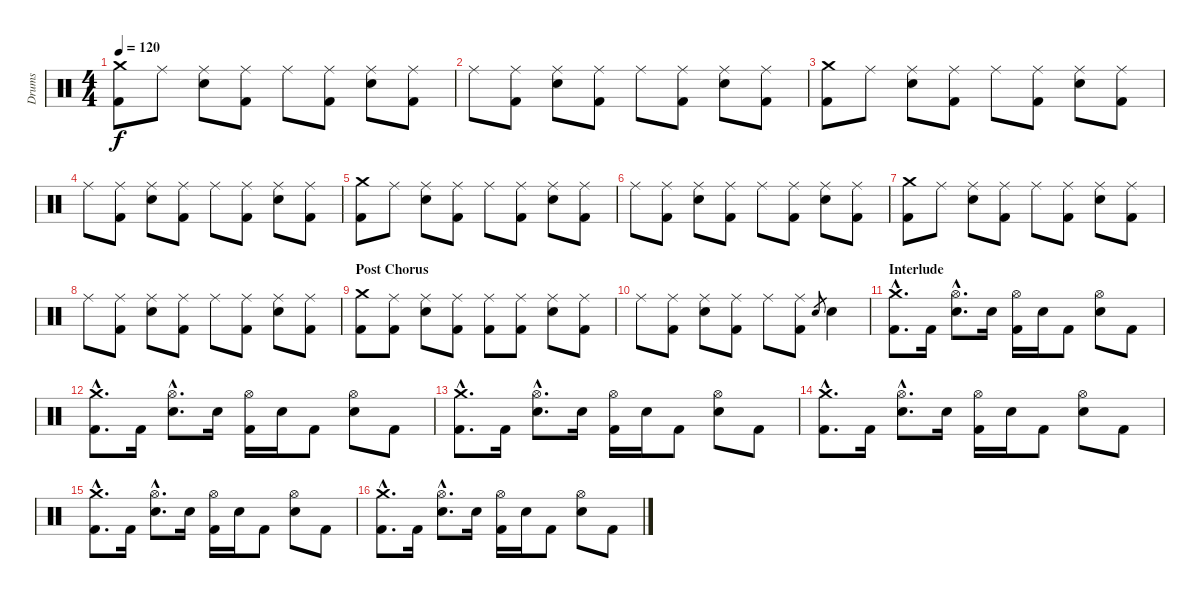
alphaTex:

\track ("Drums" "Drums") {instrument percussion}
\staff {score}
\articulation defaults
\ts (4 4)
\tempo 120
\clef neutral
\ks c
("Crash medium (hit)" "Kick (hit) 2").8{dy f} "Ride (middle)".8 ("Ride (middle)" "Electric Snare (hit)").8 ("Ride (middle)" "Kick (hit) 2").8 "Ride (middle)".8 ("Ride (middle)" "Kick (hit) 2").8 ("Ride (middle)" "Electric Snare (hit)").8 ("Ride (middle)" "Kick (hit) 2").8 |
"Ride (middle)".8 ("Ride (middle)" "Kick (hit) 2").8 ("Ride (middle)" "Electric Snare (hit)").8 ("Ride (middle)" "Kick (hit) 2").8 "Ride (middle)".8 ("Ride (middle)" "Kick (hit) 2").8 ("Ride (middle)" "Electric Snare (hit)").8 ("Ride (middle)" "Kick (hit) 2").8 |
("Crash medium (hit)" "Kick (hit) 2").8 "Ride (middle)".8 ("Ride (middle)" "Electric Snare (hit)").8 ("Ride (middle)" "Kick (hit) 2").8 "Ride (middle)".8 ("Ride (middle)" "Kick (hit) 2").8 ("Ride (middle)" "Electric Snare (hit)").8 ("Ride (middle)" "Kick (hit) 2").8 |
"Ride (middle)".8 ("Ride (middle)" "Kick (hit) 2").8 ("Ride (middle)" "Electric Snare (hit)").8 ("Ride (middle)" "Kick (hit) 2").8 "Ride (middle)".8 ("Ride (middle)" "Kick (hit) 2").8 ("Ride (middle)" "Electric Snare (hit)").8 ("Ride (middle)" "Kick (hit) 2").8 |
("Crash medium (hit)" "Kick (hit) 2").8 "Ride (middle)".8 ("Ride (middle)" "Electric Snare (hit)").8 ("Ride (middle)" "Kick (hit) 2").8 "Ride (middle)".8 ("Ride (middle)" "Kick (hit) 2").8 ("Ride (middle)" "Electric Snare (hit)").8 ("Ride (middle)" "Kick (hit) 2").8 |
"Ride (middle)".8 ("Ride (middle)" "Kick (hit) 2").8 ("Ride (middle)" "Electric Snare (hit)").8 ("Ride (middle)" "Kick (hit) 2").8 "Ride (middle)".8 ("Ride (middle)" "Kick (hit) 2").8 ("Ride (middle)" "Electric Snare (hit)").8 ("Ride (middle)" "Kick (hit) 2").8 |
("Crash medium (hit)" "Kick (hit) 2").8 "Ride (middle)".8 ("Ride (middle)" "Electric Snare (hit)").8 ("Ride (middle)" "Kick (hit) 2").8 "Ride (middle)".8 ("Ride (middle)" "Kick (hit) 2").8 ("Ride (middle)" "Electric Snare (hit)").8 ("Ride (middle)" "Kick (hit) 2").8 |
"Ride (middle)".8 ("Ride (middle)" "Kick (hit) 2").8 ("Ride (middle)" "Electric Snare (hit)").8 ("Ride (middle)" "Kick (hit) 2").8 "Ride (middle)".8 ("Ride (middle)" "Kick (hit) 2").8 ("Ride (middle)" "Electric Snare (hit)").8 ("Ride (middle)" "Kick (hit) 2").8 |
\section ("" "Post Chorus")
("Crash medium (hit)" "Kick (hit) 2").8 ("Ride (middle)" "Kick (hit) 2").8 ("Ride (middle)" "Electric Snare (hit)").8 ("Ride (middle)" "Kick (hit) 2").8 ("Ride (middle)" "Kick (hit) 2").8 ("Ride (middle)" "Kick (hit) 2").8 ("Ride (middle)" "Electric Snare (hit)").8 ("Ride (middle)" "Kick (hit) 2").8 |
"Ride (middle)".8 ("Ride (middle)" "Kick (hit) 2").8 ("Ride (middle)" "Electric Snare (hit)").8 ("Ride (middle)" "Kick (hit) 2").8 "Ride (middle)".8 ("Ride (middle)" "Kick (hit) 2").8 "Electric Snare (hit)".8{gr} "Electric Snare (hit)".4 |
\section ("" "Interlude")
("Crash medium (hit)"{hac} "Kick (hit) 2"{hac}).8{d} "Kick (hit) 2".16 ("Hi-Hat (open)"{hac} "Electric Snare (hit)"{hac}).8{d} "Electric Snare (hit)".16 ("Hi-Hat (open)" "Kick (hit) 2").16 "Electric Snare (hit)".16 "Kick (hit) 2".8 ("Hi-Hat (open)" "Electric Snare (hit)").8 "Kick (hit) 2".8 |
("Crash medium (hit)"{hac} "Kick (hit) 2"{hac}).8{d} "Kick (hit) 2".16 ("Hi-Hat (open)"{hac} "Electric Snare (hit)"{hac}).8{d} "Electric Snare (hit)".16 ("Hi-Hat (open)" "Kick (hit) 2").16 "Electric Snare (hit)".16 "Kick (hit) 2".8 ("Hi-Hat (open)" "Electric Snare (hit)").8 "Kick (hit) 2".8 |
("Crash medium (hit)"{hac} "Kick (hit) 2"{hac}).8{d} "Kick (hit) 2".16 ("Hi-Hat (open)"{hac} "Electric Snare (hit)"{hac}).8{d} "Electric Snare (hit)".16 ("Hi-Hat (open)" "Kick (hit) 2").16 "Electric Snare (hit)".16 "Kick (hit) 2".8 ("Hi-Hat (open)" "Electric Snare (hit)").8 "Kick (hit) 2".8 |
("Crash medium (hit)"{hac} "Kick (hit) 2"{hac}).8{d} "Kick (hit) 2".16 ("Hi-Hat (open)"{hac} "Electric Snare (hit)"{hac}).8{d} "Electric Snare (hit)".16 ("Hi-Hat (open)" "Kick (hit) 2").16 "Electric Snare (hit)".16 "Kick (hit) 2".8 ("Hi-Hat (open)" "Electric Snare (hit)").8 "Kick (hit) 2".8 |
("Crash medium (hit)"{hac} "Kick (hit) 2"{hac}).8{d} "Kick (hit) 2".16 ("Hi-Hat (open)"{hac} "Electric Snare (hit)"{hac}).8{d} "Electric Snare (hit)".16 ("Hi-Hat (open)" "Kick (hit) 2").16 "Electric Snare (hit)".16 "Kick (hit) 2".8 ("Hi-Hat (open)" "Electric Snare (hit)").8 "Kick (hit) 2".8 |
("Crash medium (hit)"{hac} "Kick (hit) 2"{hac}).8{d} "Kick (hit) 2".16 ("Hi-Hat (open)"{hac} "Electric Snare (hit)"{hac}).8{d} "Electric Snare (hit)".16 ("Hi-Hat (open)" "Kick (hit) 2").16 "Electric Snare (hit)".16 "Kick (hit) 2".8 ("Hi-Hat (open)" "Electric Snare (hit)").8 "Kick (hit) 2".8
